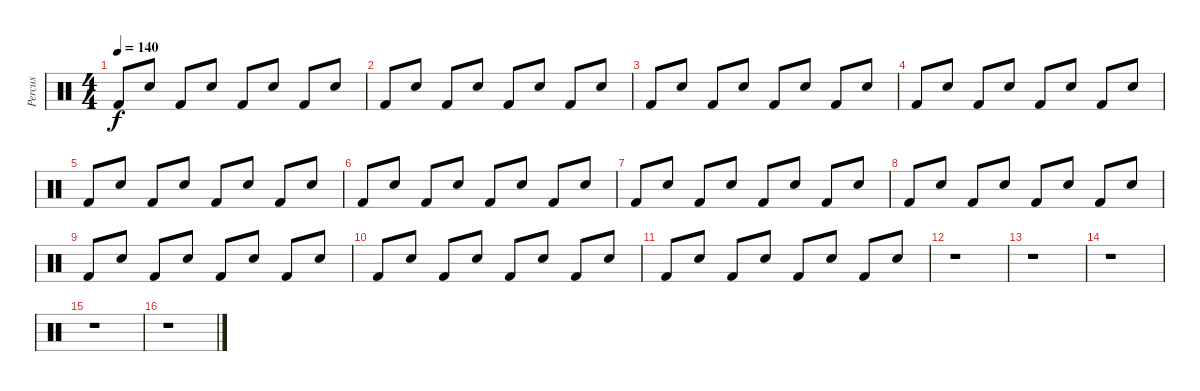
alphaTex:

\track ("Percus" "Percus") {instrument percussion}
\staff {score}
\articulation defaults
\ts (4 4)
\tempo 140
\clef neutral
\ks c "Kick (hit) 2".8{dy f} "Snare (hit) 2".8 "Kick (hit) 2".8 "Snare (hit) 2".8 "Kick (hit) 2".8 "Snare (hit) 2".8 "Kick (hit) 2".8 "Snare (hit) 2".8
|
"Kick (hit) 2".8 "Snare (hit) 2".8 "Kick (hit) 2".8 "Snare (hit) 2".8 "Kick (hit) 2".8 "Snare (hit) 2".8 "Kick (hit) 2".8 "Snare (hit) 2".8 |
"Kick (hit) 2".8 "Snare (hit) 2".8 "Kick (hit) 2".8 "Snare (hit) 2".8 "Kick (hit) 2".8 "Snare (hit) 2".8 "Kick (hit) 2".8 "Snare (hit) 2".8 |
"Kick (hit) 2".8 "Snare (hit) 2".8 "Kick (hit) 2".8 "Snare (hit) 2".8 "Kick (hit) 2".8 "Snare (hit) 2".8 "Kick (hit) 2".8 "Snare (hit) 2".8 |
"Kick (hit) 2".8 "Snare (hit) 2".8 "Kick (hit) 2".8 "Snare (hit) 2".8 "Kick (hit) 2".8 "Snare (hit) 2".8 "Kick (hit) 2".8 "Snare (hit) 2".8 |
"Kick (hit) 2".8 "Snare (hit) 2".8 "Kick (hit) 2".8 "Snare (hit) 2".8 "Kick (hit) 2".8 "Snare (hit) 2".8 "Kick (hit) 2".8 "Snare (hit) 2".8 |
"Kick (hit) 2".8 "Snare (hit) 2".8 "Kick (hit) 2".8 "Snare (hit) 2".8 "Kick (hit) 2".8 "Snare (hit) 2".8 "Kick (hit) 2".8 "Snare (hit) 2".8 |
\section ("" "")
"Kick (hit) 2".8 "Snare (hit) 2".8 "Kick (hit) 2".8 "Snare (hit) 2".8 "Kick (hit) 2".8 "Snare (hit) 2".8 "Kick (hit) 2".8 "Snare (hit) 2".8 |
"Kick (hit) 2".8 "Snare (hit) 2".8 "Kick (hit) 2".8 "Snare (hit) 2".8 "Kick (hit) 2".8 "Snare (hit) 2".8 "Kick (hit) 2".8 "Snare (hit) 2".8 |
"Kick (hit) 2".8 "Snare (hit) 2".8 "Kick (hit) 2".8 "Snare (hit) 2".8 "Kick (hit) 2".8 "Snare (hit) 2".8 "Kick (hit) 2".8 "Snare (hit) 2".8 |
"Kick (hit) 2".8 "Snare (hit) 2".8 "Kick (hit) 2".8 "Snare (hit) 2".8 "Kick (hit) 2".8 "Snare (hit) 2".8 "Kick (hit) 2".8 "Snare (hit) 2".8 |
\section ("" "")
r.1 |
r.1 |
r.1 |
r.1 |
r.1
